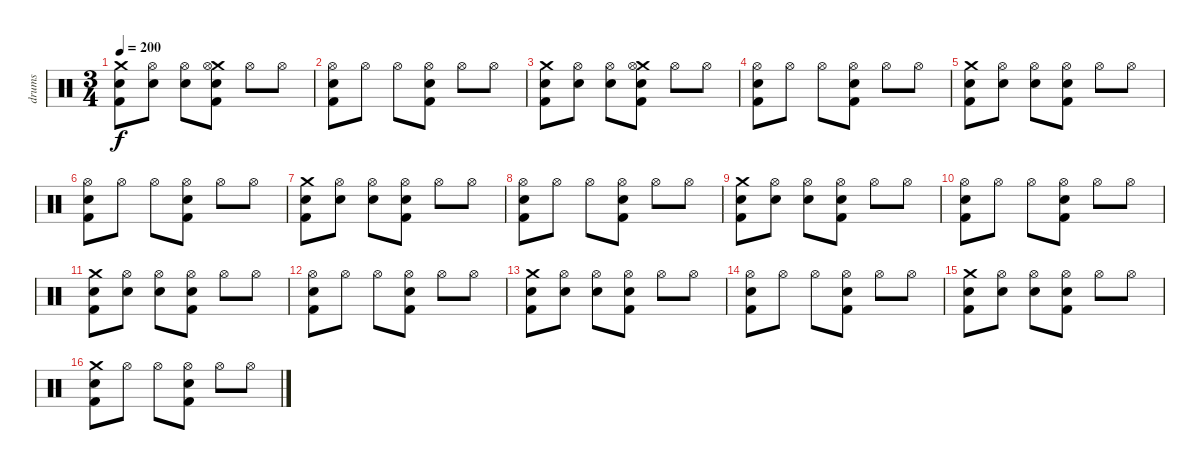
\track ("drums" "drums") {instrument percussion}
\staff {score}
\articulation defaults
\ts (3 4)
\tempo 200
\clef neutral
\ks c
("Crash medium (hit)" "Snare (hit) 2" "Kick (hit) 2").8{dy f} ("Hi-Hat (open)" "Snare (hit) 2").8 ("Hi-Hat (open)" "Snare (hit) 2").8 ("Crash medium (hit)" "Hi-Hat (open)" "Snare (hit) 2" "Kick (hit) 2").8 "Hi-Hat (open)".8 "Hi-Hat (open)".8 |
("Hi-Hat (open)" "Snare (hit) 2" "Kick (hit) 2").8 "Hi-Hat (open)".8 "Hi-Hat (open)".8 ("Hi-Hat (open)" "Snare (hit) 2" "Kick (hit) 2").8 "Hi-Hat (open)".8 "Hi-Hat (open)".8 |
("Crash medium (hit)" "Snare (hit) 2" "Kick (hit) 2").8 ("Hi-Hat (open)" "Snare (hit) 2").8 ("Hi-Hat (open)" "Snare (hit) 2").8 ("Crash medium (hit)" "Hi-Hat (open)" "Snare (hit) 2" "Kick (hit) 2").8 "Hi-Hat (open)".8 "Hi-Hat (open)".8 |
("Hi-Hat (open)" "Snare (hit) 2" "Kick (hit) 2").8 "Hi-Hat (open)".8 "Hi-Hat (open)".8 ("Hi-Hat (open)" "Snare (hit) 2" "Kick (hit) 2").8 "Hi-Hat (open)".8 "Hi-Hat (open)".8 |
("Crash medium (hit)" "Snare (hit) 2" "Kick (hit) 2").8 ("Hi-Hat (open)" "Snare (hit) 2").8 ("Hi-Hat (open)" "Snare (hit) 2").8 ("Hi-Hat (open)" "Snare (hit) 2" "Kick (hit) 2").8 "Hi-Hat (open)".8 "Hi-Hat (open)".8 |
("Hi-Hat (open)" "Snare (hit) 2" "Kick (hit) 2").8 "Hi-Hat (open)".8 "Hi-Hat (open)".8 ("Hi-Hat (open)" "Snare (hit) 2" "Kick (hit) 2").8 "Hi-Hat (open)".8 "Hi-Hat (open)".8 |
("Crash medium (hit)" "Snare (hit) 2" "Kick (hit) 2").8 ("Hi-Hat (open)" "Snare (hit) 2").8 ("Hi-Hat (open)" "Snare (hit) 2").8 ("Hi-Hat (open)" "Snare (hit) 2" "Kick (hit) 2").8 "Hi-Hat (open)".8 "Hi-Hat (open)".8 |
("Hi-Hat (open)" "Snare (hit) 2" "Kick (hit) 2").8 "Hi-Hat (open)".8 "Hi-Hat (open)".8 ("Hi-Hat (open)" "Snare (hit) 2" "Kick (hit) 2").8 "Hi-Hat (open)".8 "Hi-Hat (open)".8 |
("Crash medium (hit)" "Snare (hit) 2" "Kick (hit) 2").8 ("Hi-Hat (open)" "Snare (hit) 2").8 ("Hi-Hat (open)" "Snare (hit) 2").8 ("Hi-Hat (open)" "Snare (hit) 2" "Kick (hit) 2").8 "Hi-Hat (open)".8 "Hi-Hat (open)".8 |
("Hi-Hat (open)" "Snare (hit) 2" "Kick (hit) 2").8 "Hi-Hat (open)".8 "Hi-Hat (open)".8 ("Hi-Hat (open)" "Snare (hit) 2" "Kick (hit) 2").8 "Hi-Hat (open)".8 "Hi-Hat (open)".8 |
("Crash medium (hit)" "Snare (hit) 2" "Kick (hit) 2").8 ("Hi-Hat (open)" "Snare (hit) 2").8 ("Hi-Hat (open)" "Snare (hit) 2").8 ("Hi-Hat (open)" "Snare (hit) 2" "Kick (hit) 2").8 "Hi-Hat (open)".8 "Hi-Hat (open)".8 |
("Hi-Hat (open)" "Snare (hit) 2" "Kick (hit) 2").8 "Hi-Hat (open)".8 "Hi-Hat (open)".8 ("Hi-Hat (open)" "Snare (hit) 2" "Kick (hit) 2").8 "Hi-Hat (open)".8 "Hi-Hat (open)".8 |
("Crash medium (hit)" "Snare (hit) 2" "Kick (hit) 2").8 ("Hi-Hat (open)" "Snare (hit) 2").8 ("Hi-Hat (open)" "Snare (hit) 2").8 ("Hi-Hat (open)" "Snare (hit) 2" "Kick (hit) 2").8 "Hi-Hat (open)".8 "Hi-Hat (open)".8 |
("Hi-Hat (open)" "Snare (hit) 2" "Kick (hit) 2").8 "Hi-Hat (open)".8 "Hi-Hat (open)".8 ("Hi-Hat (open)" "Snare (hit) 2" "Kick (hit) 2").8 "Hi-Hat (open)".8 "Hi-Hat (open)".8 |
("Crash medium (hit)" "Snare (hit) 2" "Kick (hit) 2").8 ("Hi-Hat (open)" "Snare (hit) 2").8 ("Hi-Hat (open)" "Snare (hit) 2").8 ("Hi-Hat (open)" "Snare (hit) 2" "Kick (hit) 2").8 "Hi-Hat (open)".8 "Hi-Hat (open)".8 |
("Crash medium (hit)" "Snare (hit) 2" "Kick (hit) 2").8 "Hi-Hat (open)".8 "Hi-Hat (open)".8 ("Hi-Hat (open)" "Snare (hit) 2" "Kick (hit) 2").8 "Hi-Hat (open)".8 "Hi-Hat (open)".8
